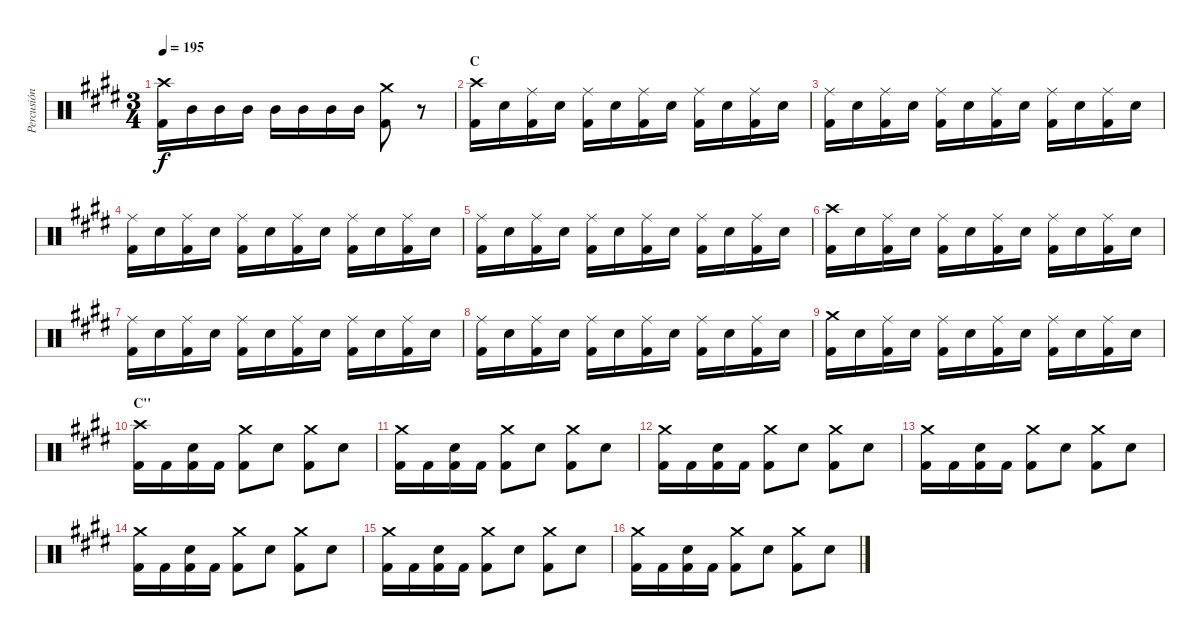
\track ("Percusión" "Percusión") {instrument percussion}
\staff {score}
\articulation defaults
\ts (3 4)
\tempo 195
\clef neutral
\ks e
("Crash high (hit)" "Kick (hit) 2").16{dy f} "Mid Tom (hit)".16 "Mid Tom (hit)".16 "Mid Tom (hit)".16 "Mid Tom (hit)".16 "Mid Tom (hit)".16 "Mid Tom (hit)".16 "Mid Tom (hit)".16 ("Crash medium (hit)" "Kick (hit) 2").8 r.8 |
\section ("" "C")
("Crash high (hit)" "Kick (hit) 2").16 "Electric Snare (hit)".16 ("Ride (middle)" "Kick (hit) 2").16 "Electric Snare (hit)".16 ("Ride (middle)" "Kick (hit) 2").16 "Electric Snare (hit)".16 ("Ride (middle)" "Kick (hit) 2").16 "Electric Snare (hit)".16 ("Ride (middle)" "Kick (hit) 2").16 "Electric Snare (hit)".16 ("Ride (middle)" "Kick (hit) 2").16 "Electric Snare (hit)".16 |
("Ride (middle)" "Kick (hit) 2").16 "Electric Snare (hit)".16 ("Ride (middle)" "Kick (hit) 2").16 "Electric Snare (hit)".16 ("Ride (middle)" "Kick (hit) 2").16 "Electric Snare (hit)".16 ("Ride (middle)" "Kick (hit) 2").16 "Electric Snare (hit)".16 ("Ride (middle)" "Kick (hit) 2").16 "Electric Snare (hit)".16 ("Ride (middle)" "Kick (hit) 2").16 "Electric Snare (hit)".16 |
("Ride (middle)" "Kick (hit) 2").16 "Electric Snare (hit)".16 ("Ride (middle)" "Kick (hit) 2").16 "Electric Snare (hit)".16 ("Ride (middle)" "Kick (hit) 2").16 "Electric Snare (hit)".16 ("Ride (middle)" "Kick (hit) 2").16 "Electric Snare (hit)".16 ("Ride (middle)" "Kick (hit) 2").16 "Electric Snare (hit)".16 ("Ride (middle)" "Kick (hit) 2").16 "Electric Snare (hit)".16 |
("Ride (middle)" "Kick (hit) 2").16 "Electric Snare (hit)".16 ("Ride (middle)" "Kick (hit) 2").16 "Electric Snare (hit)".16 ("Ride (middle)" "Kick (hit) 2").16 "Electric Snare (hit)".16 ("Ride (middle)" "Kick (hit) 2").16 "Electric Snare (hit)".16 ("Ride (middle)" "Kick (hit) 2").16 "Electric Snare (hit)".16 ("Ride (middle)" "Kick (hit) 2").16 "Electric Snare (hit)".16 |
("Crash high (hit)" "Kick (hit) 2").16 "Electric Snare (hit)".16 ("Ride (middle)" "Kick (hit) 2").16 "Electric Snare (hit)".16 ("Ride (middle)" "Kick (hit) 2").16 "Electric Snare (hit)".16 ("Ride (middle)" "Kick (hit) 2").16 "Electric Snare (hit)".16 ("Ride (middle)" "Kick (hit) 2").16 "Electric Snare (hit)".16 ("Ride (middle)" "Kick (hit) 2").16 "Electric Snare (hit)".16 |
("Ride (middle)" "Kick (hit) 2").16 "Electric Snare (hit)".16 ("Ride (middle)" "Kick (hit) 2").16 "Electric Snare (hit)".16 ("Ride (middle)" "Kick (hit) 2").16 "Electric Snare (hit)".16 ("Ride (middle)" "Kick (hit) 2").16 "Electric Snare (hit)".16 ("Ride (middle)" "Kick (hit) 2").16 "Electric Snare (hit)".16 ("Ride (middle)" "Kick (hit) 2").16 "Electric Snare (hit)".16 |
("Ride (middle)" "Kick (hit) 2").16 "Electric Snare (hit)".16 ("Ride (middle)" "Kick (hit) 2").16 "Electric Snare (hit)".16 ("Ride (middle)" "Kick (hit) 2").16 "Electric Snare (hit)".16 ("Ride (middle)" "Kick (hit) 2").16 "Electric Snare (hit)".16 ("Ride (middle)" "Kick (hit) 2").16 "Electric Snare (hit)".16 ("Ride (middle)" "Kick (hit) 2").16 "Electric Snare (hit)".16 |
("Crash medium (hit)" "Kick (hit) 2").16 "Electric Snare (hit)".16 ("Ride (middle)" "Kick (hit) 2").16 "Electric Snare (hit)".16 ("Ride (middle)" "Kick (hit) 2").16 "Electric Snare (hit)".16 ("Ride (middle)" "Kick (hit) 2").16 "Electric Snare (hit)".16 ("Ride (middle)" "Kick (hit) 2").16 "Electric Snare (hit)".16 ("Ride (middle)" "Kick (hit) 2").16 "Electric Snare (hit)".16 |
\section ("" "C''")
("Crash high (hit)" "Kick (hit) 2").16 "Kick (hit) 2".16 ("Electric Snare (hit)" "Kick (hit) 2").16 "Kick (hit) 2".16 ("Crash medium (hit)" "Kick (hit) 2").8 "Electric Snare (hit)".8 ("Crash medium (hit)" "Kick (hit) 2").8 "Electric Snare (hit)".8 |
("Crash medium (hit)" "Kick (hit) 2").16 "Kick (hit) 2".16 ("Electric Snare (hit)" "Kick (hit) 2").16 "Kick (hit) 2".16 ("Crash medium (hit)" "Kick (hit) 2").8 "Electric Snare (hit)".8 ("Crash medium (hit)" "Kick (hit) 2").8 "Electric Snare (hit)".8 |
("Crash medium (hit)" "Kick (hit) 2").16 "Kick (hit) 2".16 ("Electric Snare (hit)" "Kick (hit) 2").16 "Kick (hit) 2".16 ("Crash medium (hit)" "Kick (hit) 2").8 "Electric Snare (hit)".8 ("Crash medium (hit)" "Kick (hit) 2").8 "Electric Snare (hit)".8 |
("Crash medium (hit)" "Kick (hit) 2").16 "Kick (hit) 2".16 ("Electric Snare (hit)" "Kick (hit) 2").16 "Kick (hit) 2".16 ("Crash medium (hit)" "Kick (hit) 2").8 "Electric Snare (hit)".8 ("Crash medium (hit)" "Kick (hit) 2").8 "Electric Snare (hit)".8 |
("Crash medium (hit)" "Kick (hit) 2").16 "Kick (hit) 2".16 ("Electric Snare (hit)" "Kick (hit) 2").16 "Kick (hit) 2".16 ("Crash medium (hit)" "Kick (hit) 2").8 "Electric Snare (hit)".8 ("Crash medium (hit)" "Kick (hit) 2").8 "Electric Snare (hit)".8 |
("Crash medium (hit)" "Kick (hit) 2").16 "Kick (hit) 2".16 ("Electric Snare (hit)" "Kick (hit) 2").16 "Kick (hit) 2".16 ("Crash medium (hit)" "Kick (hit) 2").8 "Electric Snare (hit)".8 ("Crash medium (hit)" "Kick (hit) 2").8 "Electric Snare (hit)".8 |
("Crash medium (hit)" "Kick (hit) 2").16 "Kick (hit) 2".16 ("Electric Snare (hit)" "Kick (hit) 2").16 "Kick (hit) 2".16 ("Crash medium (hit)" "Kick (hit) 2").8 "Electric Snare (hit)".8 ("Crash medium (hit)" "Kick (hit) 2").8 "Electric Snare (hit)".8
